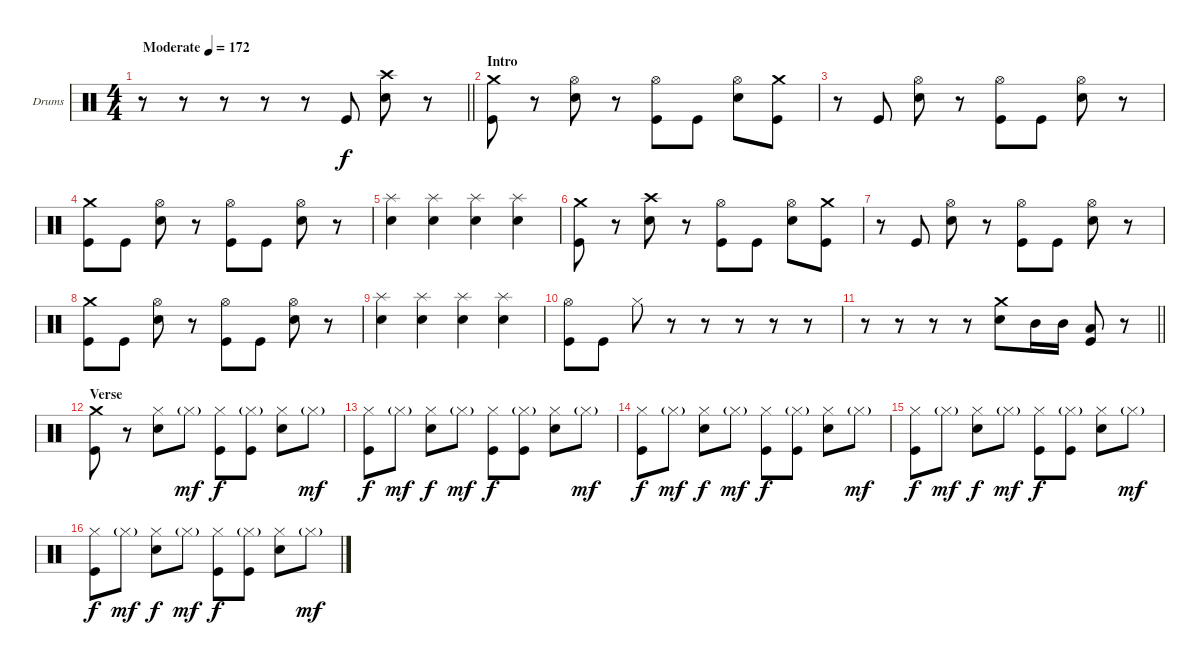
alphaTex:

\bracketExtendMode groupsimilarinstruments
\firstSystemTrackNameOrientation horizontal
\otherSystemsTrackNameOrientation horizontal
\track ("Drumkit" "Drums") {instrument percussion}
\staff {score}
\articulation defaults
\ts (4 4)
\beaming (8 2 2 2 2)
\tempo (172 "Moderate")
\clef neutral
\barLineRight lightlight
\ks c
r.8{dy f} r.8 r.8 r.8 r.8 "Kick (hit)".8 ("Crash high (hit)" "Snare (hit) 2").8 r.8 |
\section ("" "Intro")
("Crash medium (hit)" "Kick (hit)").8 r.8 ("Hi-Hat (open)" "Snare (hit) 2").8 r.8 ("Hi-Hat (open)" "Kick (hit)").8 "Kick (hit)".8 ("Hi-Hat (open)" "Snare (hit) 2").8 ("Crash medium (hit)" "Kick (hit)").8 |
r.8 "Kick (hit)".8 ("Hi-Hat (open)" "Snare (hit) 2").8 r.8 ("Hi-Hat (open)" "Kick (hit)").8 "Kick (hit)".8 ("Hi-Hat (open)" "Snare (hit) 2").8 r.8 |
("Crash medium (hit)" "Kick (hit)").8 "Kick (hit)".8 ("Hi-Hat (open)" "Snare (hit) 2").8 r.8 ("Hi-Hat (open)" "Kick (hit)").8 "Kick (hit)".8 ("Hi-Hat (open)" "Snare (hit) 2").8 r.8 |
("Splash (hit)" "Snare (hit) 2").4 ("Splash (hit)" "Snare (hit) 2").4 ("Splash (hit)" "Snare (hit) 2").4 ("Splash (hit)" "Snare (hit) 2").4 |
("Crash medium (hit)" "Kick (hit)").8 r.8 ("Crash high (hit)" "Snare (hit) 2").8 r.8 ("Hi-Hat (open)" "Kick (hit)").8 "Kick (hit)".8 ("Hi-Hat (open)" "Snare (hit) 2").8 ("Crash medium (hit)" "Kick (hit)").8 |
r.8 "Kick (hit)".8 ("Hi-Hat (open)" "Snare (hit) 2").8 r.8 ("Hi-Hat (open)" "Kick (hit)").8 "Kick (hit)".8 ("Hi-Hat (open)" "Snare (hit) 2").8 r.8 |
("Crash medium (hit)" "Kick (hit)").8 "Kick (hit)".8 ("Hi-Hat (open)" "Snare (hit) 2").8 r.8 ("Hi-Hat (open)" "Kick (hit)").8 "Kick (hit)".8 ("Hi-Hat (open)" "Snare (hit) 2").8 r.8 |
("Splash (hit)" "Snare (hit) 2").4 ("Splash (hit)" "Snare (hit) 2").4 ("Splash (hit)" "Snare (hit) 2").4 ("Splash (hit)" "Snare (hit) 2").4 |
("Hi-Hat (open)" "Kick (hit)").8 "Kick (hit)".8 "Hi-Hat (closed)".8 r.8 r.8 r.8 r.8 r.8 |
\barLineRight lightlight
r.8 r.8 r.8 r.8 ("Crash medium (hit)" "Snare (hit) 2").8 "Mid Tom (hit)".16 "Mid Tom (hit)".16 ("Low Tom (hit)" "Kick (hit)").8 r.8 |
\section ("" "Verse")
("Crash medium (hit)" "Kick (hit)").8 r.8 ("Hi-Hat (closed)" "Snare (hit) 2").8 "Hi-Hat (closed)"{g}.8{dy mf} ("Hi-Hat (closed)" "Kick (hit)").8{dy f} ("Hi-Hat (closed)"{g} "Kick (hit)").8 ("Hi-Hat (closed)" "Snare (hit) 2").8 "Hi-Hat (closed)"{g}.8{dy mf} |
("Hi-Hat (closed)" "Kick (hit)").8{dy f} "Hi-Hat (closed)"{g}.8{dy mf} ("Hi-Hat (closed)" "Snare (hit) 2").8{dy f} "Hi-Hat (closed)"{g}.8{dy mf} ("Hi-Hat (closed)" "Kick (hit)").8{dy f} ("Hi-Hat (closed)"{g} "Kick (hit)").8 ("Hi-Hat (closed)" "Snare (hit) 2").8 "Hi-Hat (closed)"{g}.8{dy mf} |
("Hi-Hat (closed)" "Kick (hit)").8{dy f} "Hi-Hat (closed)"{g}.8{dy mf} ("Hi-Hat (closed)" "Snare (hit) 2").8{dy f} "Hi-Hat (closed)"{g}.8{dy mf} ("Hi-Hat (closed)" "Kick (hit)").8{dy f} ("Hi-Hat (closed)"{g} "Kick (hit)").8 ("Hi-Hat (closed)" "Snare (hit) 2").8 "Hi-Hat (closed)"{g}.8{dy mf} |
("Hi-Hat (closed)" "Kick (hit)").8{dy f} "Hi-Hat (closed)"{g}.8{dy mf} ("Hi-Hat (closed)" "Snare (hit) 2").8{dy f} "Hi-Hat (closed)"{g}.8{dy mf} ("Hi-Hat (closed)" "Kick (hit)").8{dy f} ("Hi-Hat (closed)"{g} "Kick (hit)").8 ("Hi-Hat (closed)" "Snare (hit) 2").8 "Hi-Hat (closed)"{g}.8{dy mf} |
("Hi-Hat (closed)" "Kick (hit)").8{dy f} "Hi-Hat (closed)"{g}.8{dy mf} ("Hi-Hat (closed)" "Snare (hit) 2").8{dy f} "Hi-Hat (closed)"{g}.8{dy mf} ("Hi-Hat (closed)" "Kick (hit)").8{dy f} ("Hi-Hat (closed)"{g} "Kick (hit)").8 ("Hi-Hat (closed)" "Snare (hit) 2").8 "Hi-Hat (closed)"{g}.8{dy mf}
